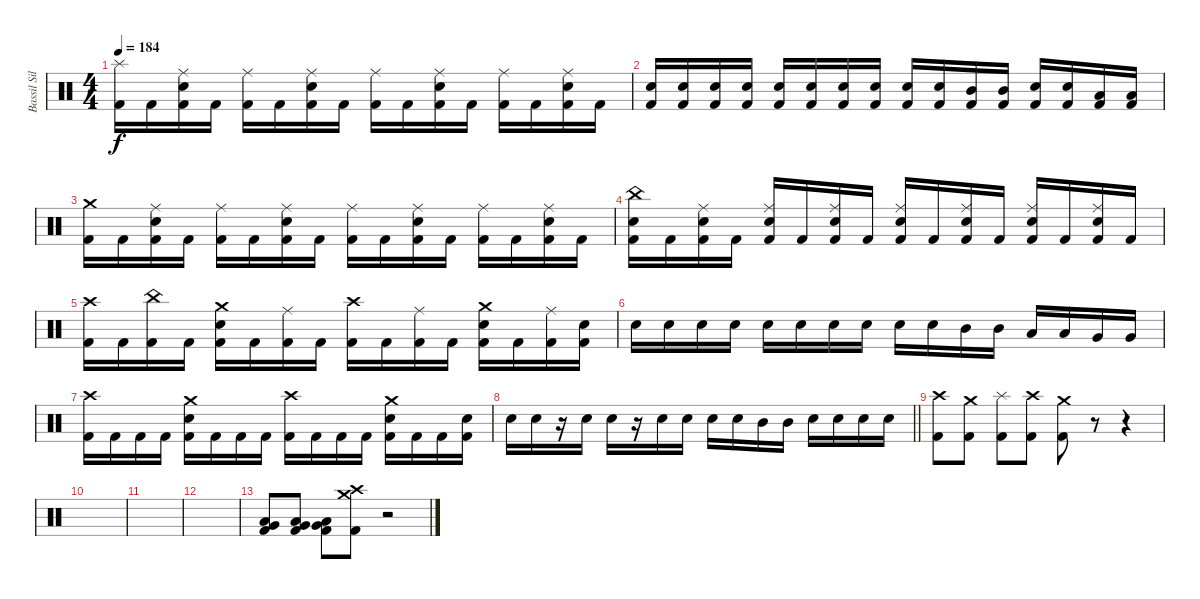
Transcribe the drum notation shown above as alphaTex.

\track ("Bassil Silver-Hajo" "Bassil Sil") {instrument percussion}
\staff {score}
\articulation defaults
\ts (4 4)
\tempo 184
\clef neutral
\ks c
("Splash (hit)" "Kick (hit) 2").16{dy f} "Kick (hit) 2".16 ("Ride (middle)" "Snare (hit) 2" "Kick (hit) 2").16 "Kick (hit) 2".16 ("Ride (middle)" "Kick (hit) 2").16 "Kick (hit) 2".16 ("Ride (middle)" "Snare (hit) 2" "Kick (hit) 2").16 "Kick (hit) 2".16 ("Ride (middle)" "Kick (hit) 2").16 "Kick (hit) 2".16 ("Ride (middle)" "Snare (hit) 2" "Kick (hit) 2").16 "Kick (hit) 2".16 ("Ride (middle)" "Kick (hit) 2").16 "Kick (hit) 2".16 ("Ride (middle)" "Snare (hit) 2" "Kick (hit) 2").16 "Kick (hit) 2".16 |
("Snare (hit) 2" "Kick (hit) 2").16 ("Snare (hit) 2" "Kick (hit) 2").16 ("Snare (hit) 2" "Kick (hit) 2").16 ("Snare (hit) 2" "Kick (hit) 2").16 ("Snare (hit) 2" "Kick (hit) 2").16 ("Snare (hit) 2" "Kick (hit) 2").16 ("Snare (hit) 2" "Kick (hit) 2").16 ("Snare (hit) 2" "Kick (hit) 2").16 ("Snare (hit) 2" "Kick (hit) 2").16 ("Snare (hit) 2" "Kick (hit) 2").16 ("Mid Tom (hit)" "Kick (hit) 2").16 ("Mid Tom (hit)" "Kick (hit) 2").16 ("Snare (hit) 2" "Kick (hit) 2").16 ("Snare (hit) 2" "Kick (hit) 2").16 ("Low Tom (hit)" "Kick (hit) 2").16 ("Low Tom (hit)" "Kick (hit) 2").16 |
("Crash medium (hit)" "Kick (hit) 2").16 "Kick (hit) 2".16 ("Ride (middle)" "Snare (hit) 2" "Kick (hit) 2").16 "Kick (hit) 2".16 ("Ride (middle)" "Kick (hit) 2").16 "Kick (hit) 2".16 ("Ride (middle)" "Snare (hit) 2" "Kick (hit) 2").16 "Kick (hit) 2".16 ("Ride (middle)" "Kick (hit) 2").16 "Kick (hit) 2".16 ("Ride (middle)" "Snare (hit) 2" "Kick (hit) 2").16 "Kick (hit) 2".16 ("Ride (middle)" "Kick (hit) 2").16 "Kick (hit) 2".16 ("Ride (middle)" "Snare (hit) 2" "Kick (hit) 2").16 "Kick (hit) 2".16 |
("China (hit)" "Snare (hit) 2" "Kick (hit) 2").16 "Kick (hit) 2".16 ("Ride (middle)" "Snare (hit) 2" "Kick (hit) 2").16 "Kick (hit) 2".16 ("Ride (middle)" "Snare (hit) 2" "Kick (hit) 2").16 "Kick (hit) 2".16 ("Ride (middle)" "Snare (hit) 2" "Kick (hit) 2").16 "Kick (hit) 2".16 ("Ride (middle)" "Snare (hit) 2" "Kick (hit) 2").16 "Kick (hit) 2".16 ("Ride (middle)" "Snare (hit) 2" "Kick (hit) 2").16 "Kick (hit) 2".16 ("Ride (middle)" "Snare (hit) 2" "Kick (hit) 2").16 "Kick (hit) 2".16 ("Ride (middle)" "Snare (hit) 2" "Kick (hit) 2").16 "Kick (hit) 2".16 |
("Crash high (hit)" "Kick (hit) 2").16 "Kick (hit) 2".16 ("China (hit)" "Kick (hit) 2").16 "Kick (hit) 2".16 ("Crash medium (hit)" "Snare (hit) 2" "Kick (hit) 2").16 "Kick (hit) 2".16 ("Ride (middle)" "Kick (hit) 2").16 "Kick (hit) 2".16 ("Crash high (hit)" "Kick (hit) 2").16 "Kick (hit) 2".16 ("Ride (middle)" "Kick (hit) 2").16 "Kick (hit) 2".16 ("Crash medium (hit)" "Snare (hit) 2" "Kick (hit) 2").16 "Kick (hit) 2".16 ("Ride (middle)" "Kick (hit) 2").16 ("Snare (hit) 2" "Kick (hit) 2").16 |
"Snare (hit) 2".16 "Snare (hit) 2".16 "Snare (hit) 2".16 "Snare (hit) 2".16 "Snare (hit) 2".16 "Snare (hit) 2".16 "Snare (hit) 2".16 "Snare (hit) 2".16 "Snare (hit) 2".16 "Snare (hit) 2".16 "Mid Tom (hit)".16 "Mid Tom (hit)".16 "Low Tom (hit)".16 "Low Tom (hit)".16 "Very Low Tom (hit)".16 "Very Low Tom (hit)".16 |
("Crash high (hit)" "Kick (hit) 2").16 "Kick (hit) 2".16 "Kick (hit) 2".16 "Kick (hit) 2".16 ("Crash medium (hit)" "Snare (hit) 2" "Kick (hit) 2").16 "Kick (hit) 2".16 "Kick (hit) 2".16 "Kick (hit) 2".16 ("Crash high (hit)" "Kick (hit) 2").16 "Kick (hit) 2".16 "Kick (hit) 2".16 "Kick (hit) 2".16 ("Crash medium (hit)" "Snare (hit) 2" "Kick (hit) 2").16 "Kick (hit) 2".16 "Kick (hit) 2".16 ("Snare (hit) 2" "Kick (hit) 2").16 |
\barLineRight lightlight "Snare (hit) 2".16 "Snare (hit) 2".16
r.16 "Snare (hit) 2".16 "Snare (hit) 2".16 r.16 "Snare (hit) 2".16 "Snare (hit) 2".16 "Snare (hit) 2".16 "Snare (hit) 2".16 "Mid Tom (hit)".16 "Mid Tom (hit)".16 "Snare (hit) 2".16 "Snare (hit) 2".16 "Snare (hit) 2".16 "Snare (hit) 2".16 |
("Crash high (hit)" "Kick (hit) 2").8 ("Crash medium (hit)" "Kick (hit) 2").8 ("Splash (hit)" "Kick (hit) 2").8 ("Crash high (hit)" "Kick (hit) 2").8 ("Crash medium (hit)" "Kick (hit) 2").8 r.8 r.4 |
|
|
|
("Very Low Tom (hit)" "Low Floor Tom (hit)" "Kick (hit) 2").8 ("Very Low Tom (hit)" "Low Floor Tom (hit)" "Kick (hit) 2").8 ("Very Low Tom (hit)" "Low Floor Tom (hit)" "Kick (hit) 2").8 ("Crash medium (hit)" "Crash high (hit)" "Kick (hit) 2").8 r.2
